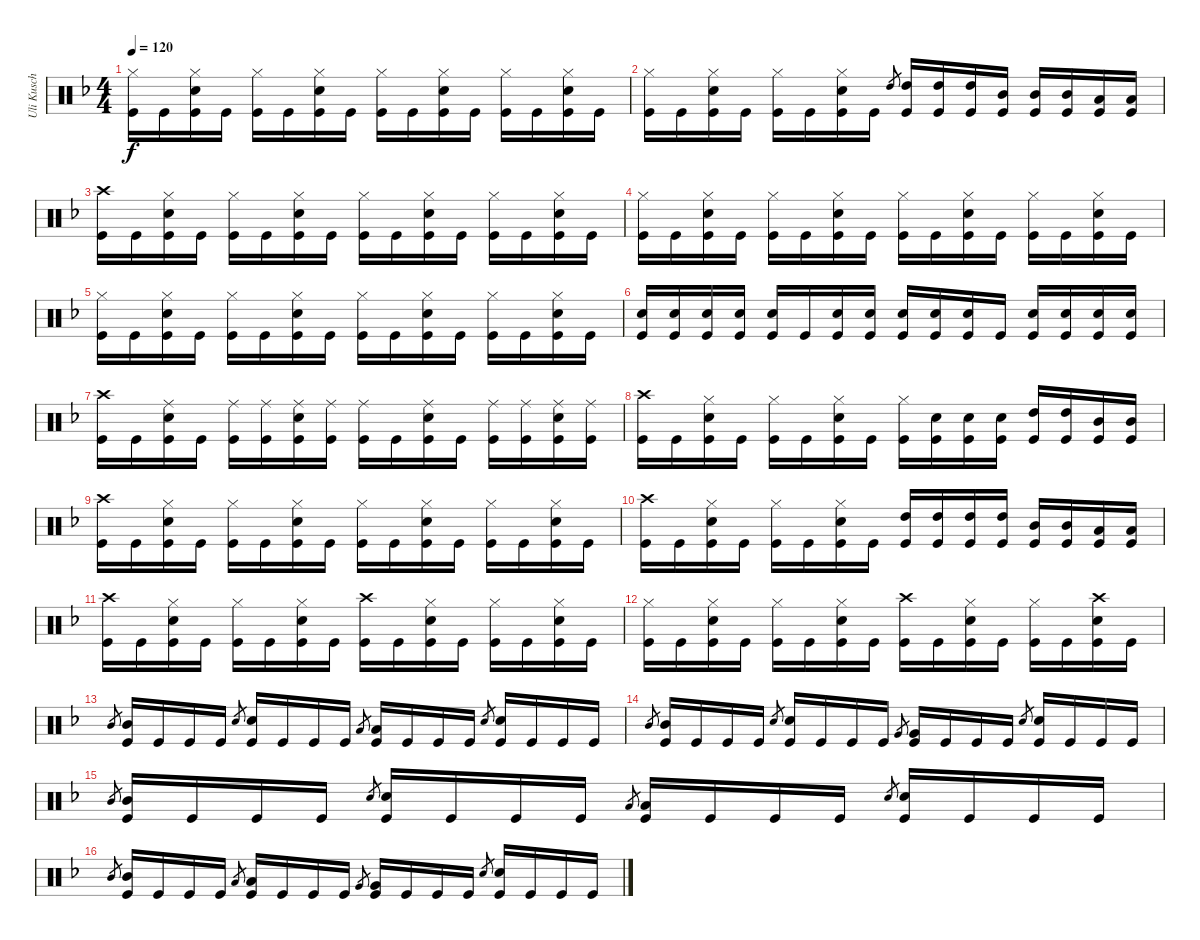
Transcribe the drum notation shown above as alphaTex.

\track ("Uli Kusch" "Uli Kusch") {instrument percussion}
\staff {score}
\articulation defaults
\ts (4 4)
\tempo 120
\clef neutral
\ks dminor
("Hi-Hat (closed)" "Kick (hit)").16{dy f} "Kick (hit)".16 ("Hi-Hat (closed)" "Snare (hit) 2" "Kick (hit)").16 "Kick (hit)".16 ("Hi-Hat (closed)" "Kick (hit)").16 "Kick (hit)".16 ("Hi-Hat (closed)" "Snare (hit) 2" "Kick (hit)").16 "Kick (hit)".16 ("Hi-Hat (closed)" "Kick (hit)").16 "Kick (hit)".16 ("Hi-Hat (closed)" "Snare (hit) 2" "Kick (hit)").16 "Kick (hit)".16 ("Hi-Hat (closed)" "Kick (hit)").16 "Kick (hit)".16 ("Hi-Hat (closed)" "Snare (hit) 2" "Kick (hit)").16 "Kick (hit)".16 |
("Hi-Hat (closed)" "Kick (hit)").16 "Kick (hit)".16 ("Hi-Hat (closed)" "Snare (hit) 2" "Kick (hit)").16 "Kick (hit)".16 ("Hi-Hat (closed)" "Kick (hit)").16 "Kick (hit)".16 ("Hi-Hat (closed)" "Snare (hit) 2" "Kick (hit)").16 "Kick (hit)".16 "High Tom (hit)".8{gr} ("High Tom (hit)" "Kick (hit)").16 ("High Tom (hit)" "Kick (hit)").16 ("High Tom (hit)" "Kick (hit)").16 ("Mid Tom (hit)" "Kick (hit)").16 ("Mid Tom (hit)" "Kick (hit)").16 ("Mid Tom (hit)" "Kick (hit)").16 ("Low Tom (hit)" "Kick (hit)").16 ("Low Tom (hit)" "Kick (hit)").16 |
("Crash high (hit)" "Kick (hit)").16 "Kick (hit)".16 ("Hi-Hat (closed)" "Snare (hit) 2" "Kick (hit)").16 "Kick (hit)".16 ("Hi-Hat (closed)" "Kick (hit)").16 "Kick (hit)".16 ("Hi-Hat (closed)" "Snare (hit) 2" "Kick (hit)").16 "Kick (hit)".16 ("Hi-Hat (closed)" "Kick (hit)").16 "Kick (hit)".16 ("Hi-Hat (closed)" "Snare (hit) 2" "Kick (hit)").16 "Kick (hit)".16 ("Hi-Hat (closed)" "Kick (hit)").16 "Kick (hit)".16 ("Hi-Hat (closed)" "Snare (hit) 2" "Kick (hit)").16 "Kick (hit)".16 |
("Hi-Hat (closed)" "Kick (hit)").16 "Kick (hit)".16 ("Hi-Hat (closed)" "Snare (hit) 2" "Kick (hit)").16 "Kick (hit)".16 ("Hi-Hat (closed)" "Kick (hit)").16 "Kick (hit)".16 ("Hi-Hat (closed)" "Snare (hit) 2" "Kick (hit)").16 "Kick (hit)".16 ("Hi-Hat (closed)" "Kick (hit)").16 "Kick (hit)".16 ("Hi-Hat (closed)" "Snare (hit) 2" "Kick (hit)").16 "Kick (hit)".16 ("Hi-Hat (closed)" "Kick (hit)").16 "Kick (hit)".16 ("Hi-Hat (closed)" "Snare (hit) 2" "Kick (hit)").16 "Kick (hit)".16 |
("Hi-Hat (closed)" "Kick (hit)").16 "Kick (hit)".16 ("Hi-Hat (closed)" "Snare (hit) 2" "Kick (hit)").16 "Kick (hit)".16 ("Hi-Hat (closed)" "Kick (hit)").16 "Kick (hit)".16 ("Hi-Hat (closed)" "Snare (hit) 2" "Kick (hit)").16 "Kick (hit)".16 ("Hi-Hat (closed)" "Kick (hit)").16 "Kick (hit)".16 ("Hi-Hat (closed)" "Snare (hit) 2" "Kick (hit)").16 "Kick (hit)".16 ("Hi-Hat (closed)" "Kick (hit)").16 "Kick (hit)".16 ("Hi-Hat (closed)" "Snare (hit) 2" "Kick (hit)").16 "Kick (hit)".16 |
("Snare (hit) 2" "Kick (hit)").16 ("Snare (hit) 2" "Kick (hit)").16 ("Snare (hit) 2" "Kick (hit)").16 ("Snare (hit) 2" "Kick (hit)").16 ("Snare (hit) 2" "Kick (hit)").16 "Kick (hit)".16 ("Snare (hit) 2" "Kick (hit)").16 ("Snare (hit) 2" "Kick (hit)").16 ("Snare (hit) 2" "Kick (hit)").16 ("Snare (hit) 2" "Kick (hit)").16 ("Snare (hit) 2" "Kick (hit)").16 "Kick (hit)".16 ("Snare (hit) 2" "Kick (hit)").16 ("Snare (hit) 2" "Kick (hit)").16 ("Snare (hit) 2" "Kick (hit)").16 ("Snare (hit) 2" "Kick (hit)").16 |
("Crash high (hit)" "Kick (hit)").16 "Kick (hit)".16 ("Ride (middle)" "Snare (hit) 2" "Kick (hit)").16 "Kick (hit)".16 ("Ride (middle)" "Kick (hit)").16 ("Ride (middle)" "Kick (hit)").16 ("Ride (middle)" "Snare (hit) 2" "Kick (hit)").16 ("Ride (middle)" "Kick (hit)").16 ("Ride (middle)" "Kick (hit)").16 "Kick (hit)".16 ("Ride (middle)" "Snare (hit) 2" "Kick (hit)").16 "Kick (hit)".16 ("Ride (middle)" "Kick (hit)").16 ("Ride (middle)" "Kick (hit)").16 ("Ride (middle)" "Snare (hit) 2" "Kick (hit)").16 ("Ride (middle)" "Kick (hit)").16 |
("Crash high (hit)" "Kick (hit)").16 "Kick (hit)".16 ("Hi-Hat (closed)" "Snare (hit) 2" "Kick (hit)").16 "Kick (hit)".16 ("Hi-Hat (closed)" "Kick (hit)").16 "Kick (hit)".16 ("Hi-Hat (closed)" "Snare (hit) 2" "Kick (hit)").16 "Kick (hit)".16 ("Hi-Hat (closed)" "Kick (hit)").16 ("Snare (hit) 2" "Kick (hit)").16 ("Snare (hit) 2" "Kick (hit)").16 ("Snare (hit) 2" "Kick (hit)").16 ("High Tom (hit)" "Kick (hit)").16 ("High Tom (hit)" "Kick (hit)").16 ("Mid Tom (hit)" "Kick (hit)").16 ("Mid Tom (hit)" "Kick (hit)").16 |
("Crash high (hit)" "Kick (hit)").16 "Kick (hit)".16 ("Hi-Hat (closed)" "Snare (hit) 2" "Kick (hit)").16 "Kick (hit)".16 ("Hi-Hat (closed)" "Kick (hit)").16 "Kick (hit)".16 ("Hi-Hat (closed)" "Snare (hit) 2" "Kick (hit)").16 "Kick (hit)".16 ("Hi-Hat (closed)" "Kick (hit)").16 "Kick (hit)".16 ("Hi-Hat (closed)" "Snare (hit) 2" "Kick (hit)").16 "Kick (hit)".16 ("Hi-Hat (closed)" "Kick (hit)").16 "Kick (hit)".16 ("Hi-Hat (closed)" "Snare (hit) 2" "Kick (hit)").16 "Kick (hit)".16 |
("Crash high (hit)" "Kick (hit)").16 "Kick (hit)".16 ("Hi-Hat (closed)" "Snare (hit) 2" "Kick (hit)").16 "Kick (hit)".16 ("Hi-Hat (closed)" "Kick (hit)").16 "Kick (hit)".16 ("Hi-Hat (closed)" "Snare (hit) 2" "Kick (hit)").16 "Kick (hit)".16 ("High Tom (hit)" "Kick (hit)").16 ("High Tom (hit)" "Kick (hit)").16 ("High Tom (hit)" "Kick (hit)").16 ("High Tom (hit)" "Kick (hit)").16 ("Mid Tom (hit)" "Kick (hit)").16 ("Mid Tom (hit)" "Kick (hit)").16 ("Low Tom (hit)" "Kick (hit)").16 ("Low Tom (hit)" "Kick (hit)").16 |
("Crash high (hit)" "Kick (hit)").16 "Kick (hit)".16 ("Hi-Hat (closed)" "Snare (hit) 2" "Kick (hit)").16 "Kick (hit)".16 ("Hi-Hat (closed)" "Kick (hit)").16 "Kick (hit)".16 ("Hi-Hat (closed)" "Snare (hit) 2" "Kick (hit)").16 "Kick (hit)".16 ("Crash high (hit)" "Kick (hit)").16 "Kick (hit)".16 ("Hi-Hat (closed)" "Snare (hit) 2" "Kick (hit)").16 "Kick (hit)".16 ("Hi-Hat (closed)" "Kick (hit)").16 "Kick (hit)".16 ("Hi-Hat (closed)" "Snare (hit) 2" "Kick (hit)").16 "Kick (hit)".16 |
("Hi-Hat (closed)" "Kick (hit)").16 "Kick (hit)".16 ("Hi-Hat (closed)" "Snare (hit) 2" "Kick (hit)").16 "Kick (hit)".16 ("Hi-Hat (closed)" "Kick (hit)").16 "Kick (hit)".16 ("Hi-Hat (closed)" "Snare (hit) 2" "Kick (hit)").16 "Kick (hit)".16 ("Crash high (hit)" "Kick (hit)").16 "Kick (hit)".16 ("Hi-Hat (closed)" "Snare (hit) 2" "Kick (hit)").16 "Kick (hit)".16 ("Hi-Hat (closed)" "Kick (hit)").16 "Kick (hit)".16 ("Crash high (hit)" "Snare (hit) 2" "Kick (hit)").16 "Kick (hit)".16 |
"Mid Tom (hit)".8{gr} ("Mid Tom (hit)" "Kick (hit)").16 "Kick (hit)".16 "Kick (hit)".16 "Kick (hit)".16 "Snare (hit) 2".8{gr} ("Snare (hit) 2" "Kick (hit)").16 "Kick (hit)".16 "Kick (hit)".16 "Kick (hit)".16 "Low Tom (hit)".8{gr} ("Low Tom (hit)" "Kick (hit)").16 "Kick (hit)".16 "Kick (hit)".16 "Kick (hit)".16 "Snare (hit) 2".8{gr} ("Snare (hit) 2" "Kick (hit)").16 "Kick (hit)".16 "Kick (hit)".16 "Kick (hit)".16 |
"Mid Tom (hit)".8{gr} ("Mid Tom (hit)" "Kick (hit)").16 "Kick (hit)".16 "Kick (hit)".16 "Kick (hit)".16 "Snare (hit) 2".8{gr} ("Snare (hit) 2" "Kick (hit)").16 "Kick (hit)".16 "Kick (hit)".16 "Kick (hit)".16 "Very Low Tom (hit)".8{gr} ("Very Low Tom (hit)" "Kick (hit)").16 "Kick (hit)".16 "Kick (hit)".16 "Kick (hit)".16 "Snare (hit) 2".8{gr} ("Snare (hit) 2" "Kick (hit)").16 "Kick (hit)".16 "Kick (hit)".16 "Kick (hit)".16 |
"Mid Tom (hit)".8{gr} ("Mid Tom (hit)" "Kick (hit)").16 "Kick (hit)".16 "Kick (hit)".16 "Kick (hit)".16 "Snare (hit) 2".8{gr} ("Snare (hit) 2" "Kick (hit)").16 "Kick (hit)".16 "Kick (hit)".16 "Kick (hit)".16 "Low Tom (hit)".8{gr} ("Low Tom (hit)" "Kick (hit)").16 "Kick (hit)".16 "Kick (hit)".16 "Kick (hit)".16 "Snare (hit) 2".8{gr} ("Snare (hit) 2" "Kick (hit)").16 "Kick (hit)".16 "Kick (hit)".16 "Kick (hit)".16 |
"Mid Tom (hit)".8{gr} ("Mid Tom (hit)" "Kick (hit)").16 "Kick (hit)".16 "Kick (hit)".16 "Kick (hit)".16 "Low Tom (hit)".8{gr} ("Low Tom (hit)" "Kick (hit)").16 "Kick (hit)".16 "Kick (hit)".16 "Kick (hit)".16 "Very Low Tom (hit)".8{gr} ("Very Low Tom (hit)" "Kick (hit)").16 "Kick (hit)".16 "Kick (hit)".16 "Kick (hit)".16 "Snare (hit) 2".8{gr} ("Snare (hit) 2" "Kick (hit)").16 "Kick (hit)".16 "Kick (hit)".16 "Kick (hit)".16
